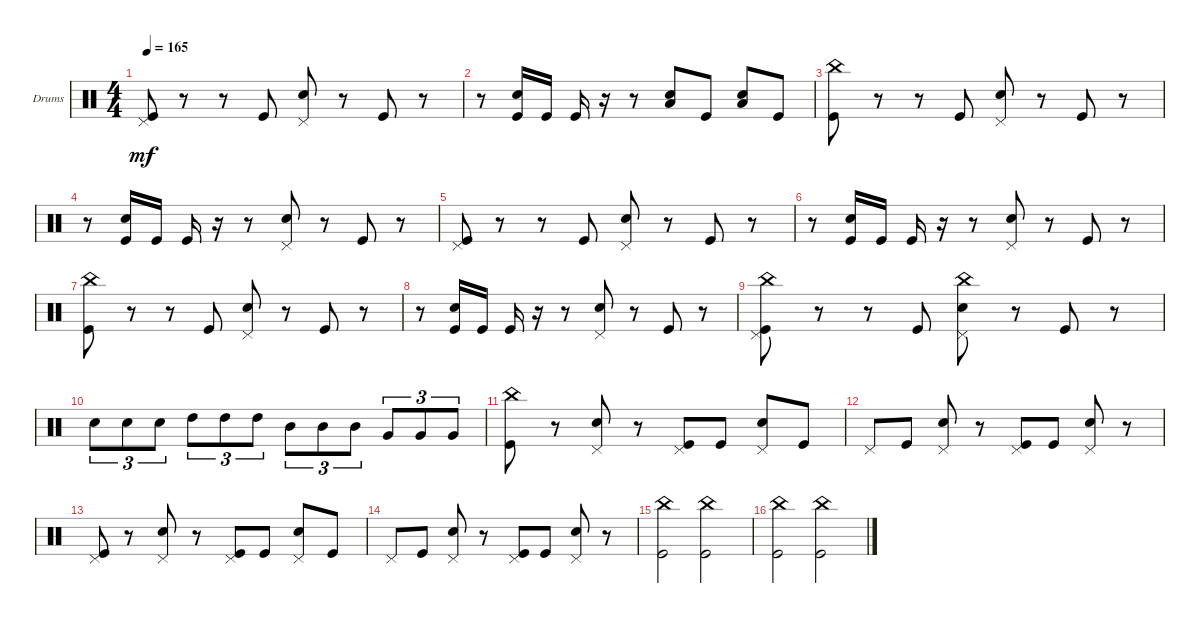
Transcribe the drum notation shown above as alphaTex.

\defaultSystemsLayout 4
\bracketExtendMode groupsimilarinstruments
\firstSystemTrackNameOrientation horizontal
\otherSystemsTrackNameOrientation horizontal
\track ("Drumkit" "Drums") {instrument percussion}
\staff {score}
\articulation defaults
\ts (4 4)
\tempo 165
\clef neutral
\ks c
("Kick (hit)" "Pedal Hi-Hat (hit)").8{dy mf} r.8 r.8 "Kick (hit)".8 ("Snare (hit) 2" "Pedal Hi-Hat (hit)").8 r.8 "Kick (hit)".8 r.8 |
r.8 ("Kick (hit)" "Snare (hit) 2").16 "Kick (hit)".16 "Kick (hit)".16 r.16 r.8 ("Snare (hit) 2" "Low Tom (hit)").8 "Kick (hit)".8 ("Snare (hit) 2" "Low Tom (hit)").8 "Kick (hit)".8 |
("China (hit)" "Kick (hit)").8 r.8 r.8 "Kick (hit)".8 ("Snare (hit) 2" "Pedal Hi-Hat (hit)").8 r.8 "Kick (hit)".8 r.8 |
r.8 ("Kick (hit)" "Snare (hit) 2").16 "Kick (hit)".16 "Kick (hit)".16 r.16 r.8 ("Snare (hit) 2" "Pedal Hi-Hat (hit)").8 r.8 "Kick (hit)".8 r.8 |
("Kick (hit)" "Pedal Hi-Hat (hit)").8 r.8 r.8 "Kick (hit)".8 ("Snare (hit) 2" "Pedal Hi-Hat (hit)").8 r.8 "Kick (hit)".8 r.8 |
r.8 ("Kick (hit)" "Snare (hit) 2").16 "Kick (hit)".16 "Kick (hit)".16 r.16 r.8 ("Snare (hit) 2" "Pedal Hi-Hat (hit)").8 r.8 "Kick (hit)".8 r.8 |
("China (hit)" "Kick (hit)").8 r.8 r.8 "Kick (hit)".8 ("Snare (hit) 2" "Pedal Hi-Hat (hit)").8 r.8 "Kick (hit)".8 r.8 |
r.8 ("Kick (hit)" "Snare (hit) 2").16 "Kick (hit)".16 "Kick (hit)".16 r.16 r.8 ("Snare (hit) 2" "Pedal Hi-Hat (hit)").8 r.8 "Kick (hit)".8 r.8 |
("Kick (hit)" "Pedal Hi-Hat (hit)" "China (hit)").8 r.8 r.8 "Kick (hit)".8 ("Snare (hit) 2" "Pedal Hi-Hat (hit)" "China (hit)").8 r.8 "Kick (hit)".8 r.8 |
"Snare (hit) 2".8{tu (3 2)} "Snare (hit) 2".8{tu (3 2)} "Snare (hit) 2".8{tu (3 2)} "High Tom (hit)".8{tu (3 2)} "High Tom (hit)".8{tu (3 2)} "High Tom (hit)".8{tu (3 2)} "Mid Tom (hit)".8{tu (3 2)} "Mid Tom (hit)".8{tu (3 2)} "Mid Tom (hit)".8{tu (3 2)} "Very Low Tom (hit)".8{tu (3 2)} "Very Low Tom (hit)".8{tu (3 2)} "Very Low Tom (hit)".8{tu (3 2)} |
("Kick (hit)" "China (hit)").8 r.8 ("Snare (hit) 2" "Pedal Hi-Hat (hit)").8 r.8 ("Kick (hit)" "Pedal Hi-Hat (hit)").8 "Kick (hit)".8 ("Snare (hit) 2" "Pedal Hi-Hat (hit)").8 "Kick (hit)".8 |
"Pedal Hi-Hat (hit)".8 "Kick (hit)".8 ("Snare (hit) 2" "Pedal Hi-Hat (hit)").8 r.8 ("Kick (hit)" "Pedal Hi-Hat (hit)").8 "Kick (hit)".8 ("Snare (hit) 2" "Pedal Hi-Hat (hit)").8 r.8 |
("Kick (hit)" "Pedal Hi-Hat (hit)").8 r.8 ("Snare (hit) 2" "Pedal Hi-Hat (hit)").8 r.8 ("Kick (hit)" "Pedal Hi-Hat (hit)").8 "Kick (hit)".8 ("Snare (hit) 2" "Pedal Hi-Hat (hit)").8 "Kick (hit)".8 |
"Pedal Hi-Hat (hit)".8 "Kick (hit)".8 ("Snare (hit) 2" "Pedal Hi-Hat (hit)").8 r.8 ("Kick (hit)" "Pedal Hi-Hat (hit)").8 "Kick (hit)".8 ("Snare (hit) 2" "Pedal Hi-Hat (hit)").8 r.8 |
("Kick (hit)" "China (hit)").2 ("Kick (hit)" "China (hit)").2 |
("Kick (hit)" "China (hit)").2 ("Kick (hit)" "China (hit)").2
